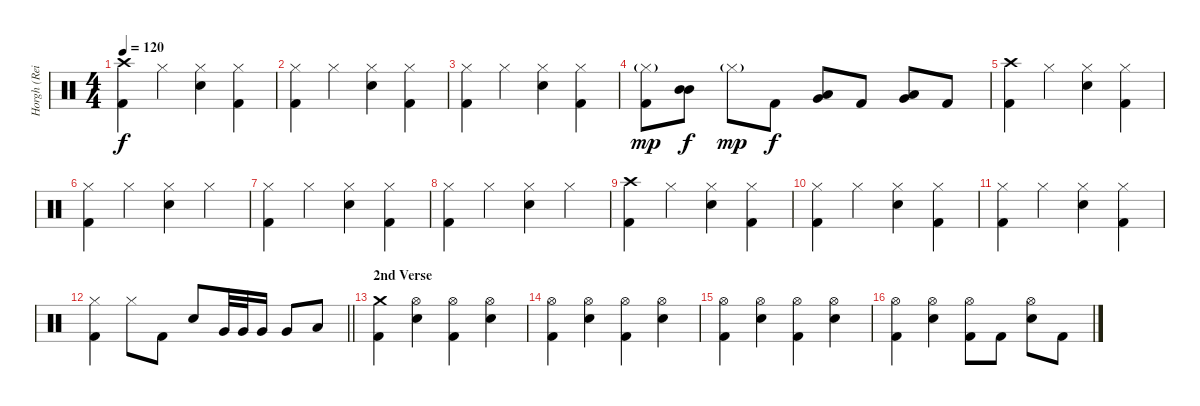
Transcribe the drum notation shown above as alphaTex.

\track ("Horgh (Reidar Horghagen)" "Horgh (Rei") {instrument percussion}
\staff {score}
\articulation defaults
\ts (4 4)
\tempo 120
\clef neutral
\ks c
("Crash high (hit)" "Kick (hit) 2").4{dy f} "Hi-Hat (closed)".4 ("Hi-Hat (closed)" "Snare (hit) 2").4 ("Hi-Hat (closed)" "Kick (hit) 2").4 |
("Hi-Hat (closed)" "Kick (hit) 2").4 "Hi-Hat (closed)".4 ("Hi-Hat (closed)" "Snare (hit) 2").4 ("Hi-Hat (closed)" "Kick (hit) 2").4 |
("Hi-Hat (closed)" "Kick (hit) 2").4 "Hi-Hat (closed)".4 ("Hi-Hat (closed)" "Snare (hit) 2").4 ("Hi-Hat (closed)" "Kick (hit) 2").4 |
("Hi-Hat (closed)"{g} "Kick (hit) 2").8{dy mp} ("Mid Tom (hit)" "Mid Tom (hit)").8{dy f} "Hi-Hat (closed)"{g}.8{dy mp} "Kick (hit) 2".8{dy f} ("Low Tom (hit)" "Very Low Tom (hit)").8 "Kick (hit) 2".8 ("Very Low Tom (hit)" "Low Floor Tom (hit)").8 "Kick (hit) 2".8 |
("Crash high (hit)" "Kick (hit) 2").4 "Hi-Hat (closed)".4 ("Hi-Hat (closed)" "Snare (hit) 2").4 ("Hi-Hat (closed)" "Kick (hit) 2").4 |
("Hi-Hat (closed)" "Kick (hit) 2").4 "Hi-Hat (closed)".4 ("Hi-Hat (closed)" "Snare (hit) 2").4 "Hi-Hat (closed)".4 |
("Hi-Hat (closed)" "Kick (hit) 2").4 "Hi-Hat (closed)".4 ("Hi-Hat (closed)" "Snare (hit) 2").4 ("Hi-Hat (closed)" "Kick (hit) 2").4 |
("Hi-Hat (closed)" "Kick (hit) 2").4 "Hi-Hat (closed)".4 ("Hi-Hat (closed)" "Snare (hit) 2").4 "Hi-Hat (closed)".4 |
("Crash high (hit)" "Kick (hit) 2").4 "Hi-Hat (closed)".4 ("Hi-Hat (closed)" "Snare (hit) 2").4 ("Hi-Hat (closed)" "Kick (hit) 2").4 |
("Hi-Hat (closed)" "Kick (hit) 2").4 "Hi-Hat (closed)".4 ("Hi-Hat (closed)" "Snare (hit) 2").4 ("Hi-Hat (closed)" "Kick (hit) 2").4 |
("Hi-Hat (closed)" "Kick (hit) 2").4 "Hi-Hat (closed)".4 ("Hi-Hat (closed)" "Snare (hit) 2").4 ("Hi-Hat (closed)" "Kick (hit) 2").4 |
\barLineRight lightlight
("Hi-Hat (closed)" "Kick (hit) 2").4 "Hi-Hat (closed)".8 "Kick (hit) 2".8 "Snare (hit) 2".8 "Very Low Tom (hit)".32 "Very Low Tom (hit)".32 "Very Low Tom (hit)".16 "Very Low Tom (hit)".8 "Low Floor Tom (hit)".8 |
\section ("" "2nd Verse")
("Crash medium (hit)" "Kick (hit) 2").4 ("Hi-Hat (open)" "Snare (hit) 2").4 ("Hi-Hat (open)" "Kick (hit) 2").4 ("Hi-Hat (open)" "Snare (hit) 2").4 |
("Hi-Hat (open)" "Kick (hit) 2").4 ("Hi-Hat (open)" "Snare (hit) 2").4 ("Hi-Hat (open)" "Kick (hit) 2").4 ("Hi-Hat (open)" "Snare (hit) 2").4 |
("Hi-Hat (open)" "Kick (hit) 2").4 ("Hi-Hat (open)" "Snare (hit) 2").4 ("Hi-Hat (open)" "Kick (hit) 2").4 ("Hi-Hat (open)" "Snare (hit) 2").4 |
("Hi-Hat (open)" "Kick (hit) 2").4 ("Hi-Hat (open)" "Snare (hit) 2").4 ("Hi-Hat (open)" "Kick (hit) 2").8 "Kick (hit) 2".8 ("Hi-Hat (open)" "Snare (hit) 2").8 "Kick (hit) 2".8
